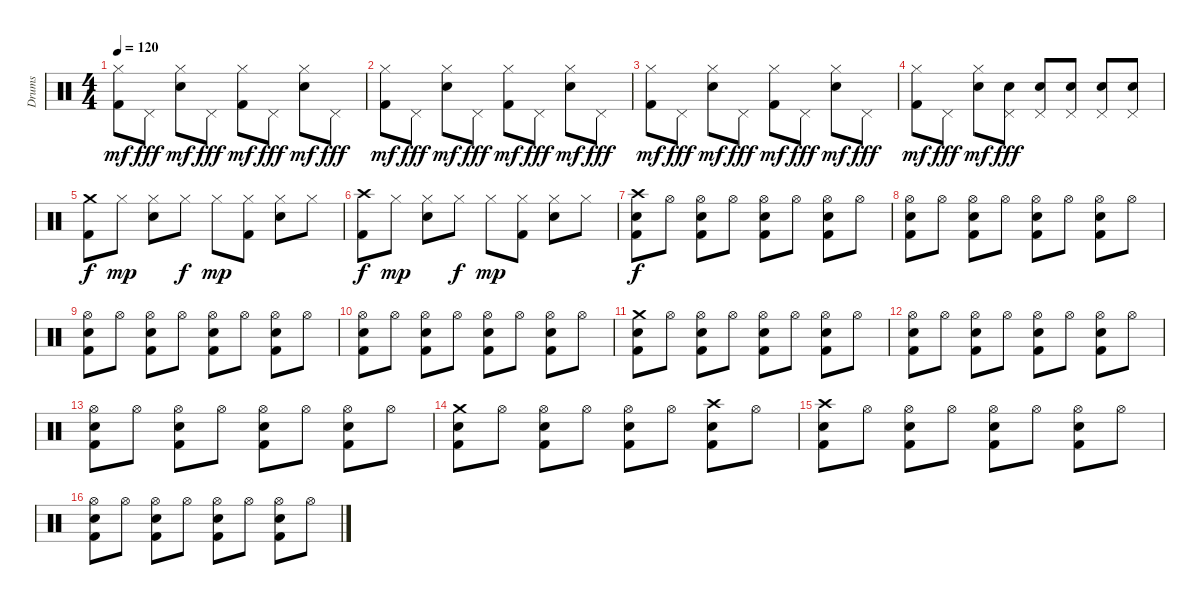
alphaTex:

\track ("Drums" "Drums") {instrument percussion}
\staff {score}
\articulation defaults
\ts (4 4)
\tempo 120
\clef neutral
\ks c
("Kick (hit) 2" "Hi-Hat (closed)").8{dy mf} "Pedal Hi-Hat (hit)".8{dy fff} ("Hi-Hat (closed)" "Snare (hit) 2").8{dy mf} "Pedal Hi-Hat (hit)".8{dy fff} ("Kick (hit) 2" "Hi-Hat (closed)").8{dy mf} "Pedal Hi-Hat (hit)".8{dy fff} ("Hi-Hat (closed)" "Snare (hit) 2").8{dy mf} "Pedal Hi-Hat (hit)".8{dy fff} |
("Kick (hit) 2" "Hi-Hat (closed)").8{dy mf} "Pedal Hi-Hat (hit)".8{dy fff} ("Hi-Hat (closed)" "Snare (hit) 2").8{dy mf} "Pedal Hi-Hat (hit)".8{dy fff} ("Kick (hit) 2" "Hi-Hat (closed)").8{dy mf} "Pedal Hi-Hat (hit)".8{dy fff} ("Hi-Hat (closed)" "Snare (hit) 2").8{dy mf} "Pedal Hi-Hat (hit)".8{dy fff} |
("Kick (hit) 2" "Hi-Hat (closed)").8{dy mf} "Pedal Hi-Hat (hit)".8{dy fff} ("Hi-Hat (closed)" "Snare (hit) 2").8{dy mf} "Pedal Hi-Hat (hit)".8{dy fff} ("Kick (hit) 2" "Hi-Hat (closed)").8{dy mf} "Pedal Hi-Hat (hit)".8{dy fff} ("Hi-Hat (closed)" "Snare (hit) 2").8{dy mf} "Pedal Hi-Hat (hit)".8{dy fff} |
("Kick (hit) 2" "Hi-Hat (closed)").8{dy mf} "Pedal Hi-Hat (hit)".8{dy fff} ("Hi-Hat (closed)" "Snare (hit) 2").8{dy mf} ("Pedal Hi-Hat (hit)" "Snare (hit) 2").8{dy fff} ("Pedal Hi-Hat (hit)" "Snare (hit) 2").8 ("Pedal Hi-Hat (hit)" "Snare (hit) 2").8 ("Pedal Hi-Hat (hit)" "Snare (hit) 2").8 ("Pedal Hi-Hat (hit)" "Snare (hit) 2").8 |
("Kick (hit) 2" "Crash medium (hit)").8{dy f volume 9} "Hi-Hat (closed)".8{dy mp} ("Hi-Hat (closed)" "Electric Snare (hit)").8 "Hi-Hat (closed)".8{dy f} "Hi-Hat (closed)".8{dy mp} ("Kick (hit) 2" "Hi-Hat (closed)").8 ("Hi-Hat (closed)" "Electric Snare (hit)").8 "Hi-Hat (closed)".8 |
("Kick (hit) 2" "Crash high (hit)").8{dy f} "Hi-Hat (closed)".8{dy mp} ("Hi-Hat (closed)" "Electric Snare (hit)").8 "Hi-Hat (closed)".8{dy f} "Hi-Hat (closed)".8{dy mp} ("Kick (hit) 2" "Hi-Hat (closed)").8 ("Hi-Hat (closed)" "Electric Snare (hit)").8 "Hi-Hat (closed)".8 |
("Kick (hit) 2" "Crash high (hit)" "Snare (hit) 2").8{dy f volume 13} "Hi-Hat (open)".8 ("Kick (hit) 2" "Hi-Hat (open)" "Snare (hit) 2").8 "Hi-Hat (open)".8 ("Kick (hit) 2" "Hi-Hat (open)" "Snare (hit) 2").8 "Hi-Hat (open)".8 ("Kick (hit) 2" "Hi-Hat (open)" "Snare (hit) 2").8 "Hi-Hat (open)".8 |
("Kick (hit) 2" "Hi-Hat (open)" "Snare (hit) 2").8 "Hi-Hat (open)".8 ("Kick (hit) 2" "Hi-Hat (open)" "Snare (hit) 2").8 "Hi-Hat (open)".8 ("Kick (hit) 2" "Hi-Hat (open)" "Snare (hit) 2").8 "Hi-Hat (open)".8 ("Kick (hit) 2" "Hi-Hat (open)" "Snare (hit) 2").8 "Hi-Hat (open)".8 |
("Kick (hit) 2" "Hi-Hat (open)" "Snare (hit) 2").8 "Hi-Hat (open)".8 ("Kick (hit) 2" "Hi-Hat (open)" "Snare (hit) 2").8 "Hi-Hat (open)".8 ("Kick (hit) 2" "Hi-Hat (open)" "Snare (hit) 2").8 "Hi-Hat (open)".8 ("Kick (hit) 2" "Hi-Hat (open)" "Snare (hit) 2").8 "Hi-Hat (open)".8 |
("Kick (hit) 2" "Hi-Hat (open)" "Snare (hit) 2").8 "Hi-Hat (open)".8 ("Kick (hit) 2" "Hi-Hat (open)" "Snare (hit) 2").8 "Hi-Hat (open)".8 ("Kick (hit) 2" "Hi-Hat (open)" "Snare (hit) 2").8 "Hi-Hat (open)".8 ("Kick (hit) 2" "Hi-Hat (open)" "Snare (hit) 2").8 "Hi-Hat (open)".8 |
("Kick (hit) 2" "Crash medium (hit)" "Snare (hit) 2").8 "Hi-Hat (open)".8 ("Kick (hit) 2" "Hi-Hat (open)" "Snare (hit) 2").8 "Hi-Hat (open)".8 ("Kick (hit) 2" "Hi-Hat (open)" "Snare (hit) 2").8 "Hi-Hat (open)".8 ("Kick (hit) 2" "Hi-Hat (open)" "Snare (hit) 2").8 "Hi-Hat (open)".8 |
("Kick (hit) 2" "Hi-Hat (open)" "Snare (hit) 2").8 "Hi-Hat (open)".8 ("Kick (hit) 2" "Hi-Hat (open)" "Snare (hit) 2").8 "Hi-Hat (open)".8 ("Kick (hit) 2" "Hi-Hat (open)" "Snare (hit) 2").8 "Hi-Hat (open)".8 ("Kick (hit) 2" "Hi-Hat (open)" "Snare (hit) 2").8 "Hi-Hat (open)".8 |
("Kick (hit) 2" "Hi-Hat (open)" "Snare (hit) 2").8 "Hi-Hat (open)".8 ("Kick (hit) 2" "Hi-Hat (open)" "Snare (hit) 2").8 "Hi-Hat (open)".8 ("Kick (hit) 2" "Hi-Hat (open)" "Snare (hit) 2").8 "Hi-Hat (open)".8 ("Kick (hit) 2" "Hi-Hat (open)" "Snare (hit) 2").8 "Hi-Hat (open)".8 |
("Kick (hit) 2" "Crash medium (hit)" "Snare (hit) 2").8 "Hi-Hat (open)".8 ("Kick (hit) 2" "Hi-Hat (open)" "Snare (hit) 2").8 "Hi-Hat (open)".8 ("Kick (hit) 2" "Hi-Hat (open)" "Snare (hit) 2").8 "Hi-Hat (open)".8 ("Kick (hit) 2" "Crash high (hit)" "Snare (hit) 2").8 "Hi-Hat (open)".8 |
("Kick (hit) 2" "Crash high (hit)" "Snare (hit) 2").8 "Hi-Hat (open)".8 ("Kick (hit) 2" "Hi-Hat (open)" "Snare (hit) 2").8 "Hi-Hat (open)".8 ("Kick (hit) 2" "Hi-Hat (open)" "Snare (hit) 2").8 "Hi-Hat (open)".8 ("Kick (hit) 2" "Hi-Hat (open)" "Snare (hit) 2").8 "Hi-Hat (open)".8 |
("Kick (hit) 2" "Hi-Hat (open)" "Snare (hit) 2").8 "Hi-Hat (open)".8 ("Kick (hit) 2" "Hi-Hat (open)" "Snare (hit) 2").8 "Hi-Hat (open)".8 ("Kick (hit) 2" "Hi-Hat (open)" "Snare (hit) 2").8 "Hi-Hat (open)".8 ("Kick (hit) 2" "Hi-Hat (open)" "Snare (hit) 2").8 "Hi-Hat (open)".8
